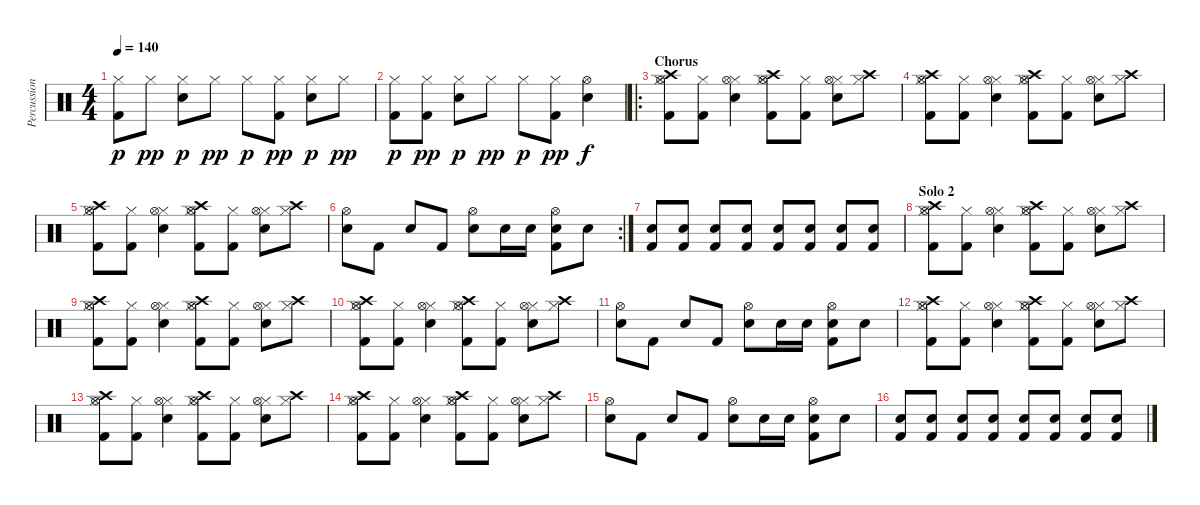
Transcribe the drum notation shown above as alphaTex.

\track ("Percussions" "Percussion") {instrument percussion}
\staff {score}
\articulation defaults
\ts (4 4)
\tempo 140
\clef neutral
\ks c
("Hi-Hat (closed)" "Kick (hit) 2").8{dy p} "Hi-Hat (closed)".8{dy pp} ("Hi-Hat (closed)" "Electric Snare (hit)").8{dy p} "Hi-Hat (closed)".8{dy pp} "Hi-Hat (closed)".8{dy p} ("Hi-Hat (closed)" "Kick (hit) 2").8{dy pp} ("Hi-Hat (closed)" "Electric Snare (hit)").8{dy p} "Hi-Hat (closed)".8{dy pp} |
("Hi-Hat (closed)" "Kick (hit) 2").8{dy p} ("Hi-Hat (closed)" "Kick (hit) 2").8{dy pp} ("Hi-Hat (closed)" "Electric Snare (hit)").8{dy p} "Hi-Hat (closed)".8{dy pp} "Hi-Hat (closed)".8{dy p} ("Hi-Hat (closed)" "Kick (hit) 2").8{dy pp} ("Hi-Hat (open)" "Electric Snare (hit)").4{dy f} |
\ro
\section ("" "Chorus")
("Hi-Hat (closed)" "Kick (hit) 2" "Hi-Hat (open)" "Crash high (hit)").8 ("Hi-Hat (closed)" "Kick (hit) 2").8 ("Hi-Hat (closed)" "Electric Snare (hit)" "Hi-Hat (open)").4 ("Hi-Hat (closed)" "Kick (hit) 2" "Hi-Hat (open)" "Crash high (hit)").8 ("Hi-Hat (closed)" "Kick (hit) 2").8 ("Hi-Hat (closed)" "Electric Snare (hit)" "Hi-Hat (open)").8 ("Hi-Hat (closed)" "Crash high (hit)").8 |
("Hi-Hat (closed)" "Kick (hit) 2" "Hi-Hat (open)" "Crash high (hit)").8 ("Hi-Hat (closed)" "Kick (hit) 2").8 ("Hi-Hat (closed)" "Electric Snare (hit)" "Hi-Hat (open)").4 ("Hi-Hat (closed)" "Kick (hit) 2" "Hi-Hat (open)" "Crash high (hit)").8 ("Hi-Hat (closed)" "Kick (hit) 2").8 ("Hi-Hat (closed)" "Electric Snare (hit)" "Hi-Hat (open)").8 ("Hi-Hat (closed)" "Crash high (hit)").8 |
("Hi-Hat (closed)" "Kick (hit) 2" "Hi-Hat (open)" "Crash high (hit)").8 ("Hi-Hat (closed)" "Kick (hit) 2").8 ("Hi-Hat (closed)" "Electric Snare (hit)" "Hi-Hat (open)").4 ("Hi-Hat (closed)" "Kick (hit) 2" "Hi-Hat (open)" "Crash high (hit)").8 ("Hi-Hat (closed)" "Kick (hit) 2").8 ("Hi-Hat (closed)" "Electric Snare (hit)" "Hi-Hat (open)").8 ("Hi-Hat (closed)" "Crash high (hit)").8 |
\rc 2
("Electric Snare (hit)" "Hi-Hat (open)").8 "Kick (hit) 2".8 "Electric Snare (hit)".8 "Kick (hit) 2".8 ("Electric Snare (hit)" "Hi-Hat (open)").8 "Electric Snare (hit)".16 "Electric Snare (hit)".16 ("Electric Snare (hit)" "Kick (hit) 2" "Hi-Hat (open)").8 "Electric Snare (hit)".8 |
("Electric Snare (hit)" "Kick (hit) 2").8 ("Electric Snare (hit)" "Kick (hit) 2").8 ("Electric Snare (hit)" "Kick (hit) 2").8 ("Electric Snare (hit)" "Kick (hit) 2").8 ("Electric Snare (hit)" "Kick (hit) 2").8 ("Electric Snare (hit)" "Kick (hit) 2").8 ("Electric Snare (hit)" "Kick (hit) 2").8 ("Electric Snare (hit)" "Kick (hit) 2").8 |
\section ("" "Solo 2")
("Hi-Hat (closed)" "Kick (hit) 2" "Hi-Hat (open)" "Crash high (hit)").8 ("Hi-Hat (closed)" "Kick (hit) 2").8 ("Hi-Hat (closed)" "Electric Snare (hit)" "Hi-Hat (open)").4 ("Hi-Hat (closed)" "Kick (hit) 2" "Hi-Hat (open)" "Crash high (hit)").8 ("Hi-Hat (closed)" "Kick (hit) 2").8 ("Hi-Hat (closed)" "Electric Snare (hit)" "Hi-Hat (open)").8 ("Hi-Hat (closed)" "Crash high (hit)").8 |
("Hi-Hat (closed)" "Kick (hit) 2" "Hi-Hat (open)" "Crash high (hit)").8 ("Hi-Hat (closed)" "Kick (hit) 2").8 ("Hi-Hat (closed)" "Electric Snare (hit)" "Hi-Hat (open)").4 ("Hi-Hat (closed)" "Kick (hit) 2" "Hi-Hat (open)" "Crash high (hit)").8 ("Hi-Hat (closed)" "Kick (hit) 2").8 ("Hi-Hat (closed)" "Electric Snare (hit)" "Hi-Hat (open)").8 ("Hi-Hat (closed)" "Crash high (hit)").8 |
("Hi-Hat (closed)" "Kick (hit) 2" "Hi-Hat (open)" "Crash high (hit)").8 ("Hi-Hat (closed)" "Kick (hit) 2").8 ("Hi-Hat (closed)" "Electric Snare (hit)" "Hi-Hat (open)").4 ("Hi-Hat (closed)" "Kick (hit) 2" "Hi-Hat (open)" "Crash high (hit)").8 ("Hi-Hat (closed)" "Kick (hit) 2").8 ("Hi-Hat (closed)" "Electric Snare (hit)" "Hi-Hat (open)").8 ("Hi-Hat (closed)" "Crash high (hit)").8 |
("Electric Snare (hit)" "Hi-Hat (open)").8 "Kick (hit) 2".8 "Electric Snare (hit)".8 "Kick (hit) 2".8 ("Electric Snare (hit)" "Hi-Hat (open)").8 "Electric Snare (hit)".16 "Electric Snare (hit)".16 ("Electric Snare (hit)" "Kick (hit) 2" "Hi-Hat (open)").8 "Electric Snare (hit)".8 |
("Hi-Hat (closed)" "Kick (hit) 2" "Hi-Hat (open)" "Crash high (hit)").8 ("Hi-Hat (closed)" "Kick (hit) 2").8 ("Hi-Hat (closed)" "Electric Snare (hit)" "Hi-Hat (open)").4 ("Hi-Hat (closed)" "Kick (hit) 2" "Hi-Hat (open)" "Crash high (hit)").8 ("Hi-Hat (closed)" "Kick (hit) 2").8 ("Hi-Hat (closed)" "Electric Snare (hit)" "Hi-Hat (open)").8 ("Hi-Hat (closed)" "Crash high (hit)").8 |
("Hi-Hat (closed)" "Kick (hit) 2" "Hi-Hat (open)" "Crash high (hit)").8 ("Hi-Hat (closed)" "Kick (hit) 2").8 ("Hi-Hat (closed)" "Electric Snare (hit)" "Hi-Hat (open)").4 ("Hi-Hat (closed)" "Kick (hit) 2" "Hi-Hat (open)" "Crash high (hit)").8 ("Hi-Hat (closed)" "Kick (hit) 2").8 ("Hi-Hat (closed)" "Electric Snare (hit)" "Hi-Hat (open)").8 ("Hi-Hat (closed)" "Crash high (hit)").8 |
("Hi-Hat (closed)" "Kick (hit) 2" "Hi-Hat (open)" "Crash high (hit)").8 ("Hi-Hat (closed)" "Kick (hit) 2").8 ("Hi-Hat (closed)" "Electric Snare (hit)" "Hi-Hat (open)").4 ("Hi-Hat (closed)" "Kick (hit) 2" "Hi-Hat (open)" "Crash high (hit)").8 ("Hi-Hat (closed)" "Kick (hit) 2").8 ("Hi-Hat (closed)" "Electric Snare (hit)" "Hi-Hat (open)").8 ("Hi-Hat (closed)" "Crash high (hit)").8 |
("Electric Snare (hit)" "Hi-Hat (open)").8 "Kick (hit) 2".8 "Electric Snare (hit)".8 "Kick (hit) 2".8 ("Electric Snare (hit)" "Hi-Hat (open)").8 "Electric Snare (hit)".16 "Electric Snare (hit)".16 ("Electric Snare (hit)" "Kick (hit) 2" "Hi-Hat (open)").8 "Electric Snare (hit)".8 |
("Electric Snare (hit)" "Kick (hit) 2").8 ("Electric Snare (hit)" "Kick (hit) 2").8 ("Electric Snare (hit)" "Kick (hit) 2").8 ("Electric Snare (hit)" "Kick (hit) 2").8 ("Electric Snare (hit)" "Kick (hit) 2").8 ("Electric Snare (hit)" "Kick (hit) 2").8 ("Electric Snare (hit)" "Kick (hit) 2").8 ("Electric Snare (hit)" "Kick (hit) 2").8
